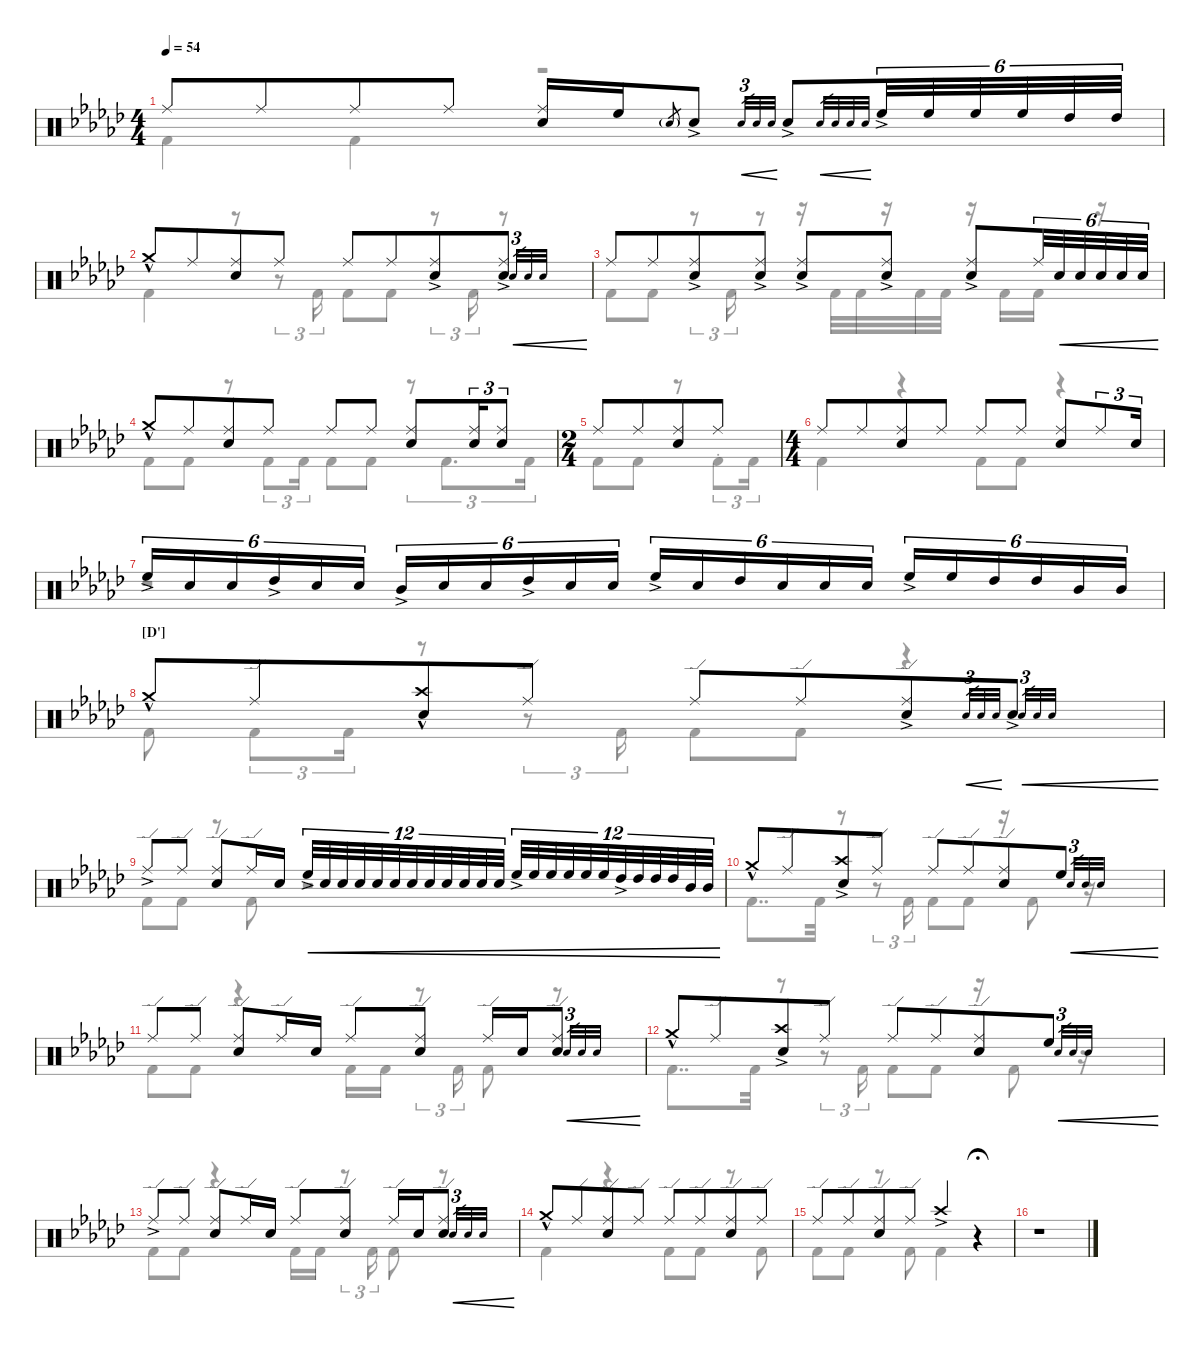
\defaultSystemsLayout 4
\hideDynamics
\bracketExtendMode nobrackets
\singleTrackTrackNamePolicy hidden
\multiTrackTrackNamePolicy hidden
\otherSystemsTrackNameOrientation horizontal
\track ("Drums" "Dr.") {instrument percussion}
\staff {score}
\articulation defaults
\voice
\ts (4 4)
\tempo 54
\clef neutral
\scale
0.464508
\ks gb "Ride (middle)"{acc #}.8{dy f beam Up} "Ride (middle)"{acc #}.8{beam Up beam merge} "Ride (middle)"{acc #}.8{beam Up} "Ride (middle)"{acc #}.8{beam Up}
("Ride (middle)"{acc #} "Snare (hit) 2"{acc #}).16{beam Up} "High Floor Tom (hit)"{acc #}.16{beam Up} "Snare (hit) 2"{g acc #}.8{gr dy mp beam Up} "Snare (hit) 2"{ac acc #}.8{dy f beam Up} "Snare (hit) 2"{acc #}.32{tu (3 2) gr cre dy mf beam Up} "Snare (hit) 2"{acc #}.32{tu (3 2) gr cre beam Up} "Snare (hit) 2"{acc #}.32{tu (3 2) gr cre beam Up} "Snare (hit) 2"{ac acc #}.8{dy f beam Up beam merge} "Snare (hit) 2"{acc #}.32{gr cre dy mf beam Up beam merge} "Snare (hit) 2"{acc #}.32{gr cre beam Up beam merge} "Snare (hit) 2"{acc #}.32{gr cre beam Up beam merge} "Snare (hit) 2"{acc #}.32{gr cre beam Up beam merge} "High Floor Tom (hit)"{ac acc #}.32{tu (6 4) dy f beam Up} "High Floor Tom (hit)"{acc #}.32{tu (6 4) beam Up} "High Floor Tom (hit)"{acc #}.32{tu (6 4) beam Up} "High Floor Tom (hit)"{acc #}.32{tu (6 4) beam Up} "High Tom (hit)"{acc #}.32{tu (6 4) beam Up} "High Tom (hit)"{acc #}.32{tu (6 4) beam Up} |
"Crash medium (hit)"{hac acc #}.8{beam Up} "Ride (middle)"{acc #}.8{beam Up beam merge} ("Ride (middle)"{acc #} "Snare (hit) 2"{acc #}).8{beam Up} "Ride (middle)"{acc #}.8{beam Up} "Ride (middle)"{acc #}.8{beam Up} "Ride (middle)"{acc #}.8{beam Up beam merge} ("Ride (middle)"{acc #} "Snare (hit) 2"{ac acc #}).8{beam Up} ("Ride (middle)"{acc #} "Snare (hit) 2"{ac acc #}).8{beam Up beam merge} "Snare (hit) 2"{acc #}.32{tu (3 2) gr cre dy mf beam Up} "Snare (hit) 2"{acc #}.32{tu (3 2) gr cre beam Up} "Snare (hit) 2"{acc #}.32{tu (3 2) gr cre beam Up} |
"Ride (middle)"{acc #}.8{dy f beam Up} "Ride (middle)"{acc #}.8{beam Up beam merge} ("Ride (middle)"{acc #} "Snare (hit) 2"{ac acc #}).8{beam Up} ("Ride (middle)"{acc #} "Snare (hit) 2"{ac acc #}).8{beam Up} ("Ride (middle)"{acc #} "Snare (hit) 2"{ac acc #}).8{beam Up} ("Ride (middle)"{acc #} "Snare (hit) 2"{ac acc #}).8{beam Up} ("Ride (middle)"{acc #} "Snare (hit) 2"{ac acc #}).8{beam Up beam merge} "Ride (middle)"{acc #}.32{tu (6 4) beam Up beam merge} "Snare (hit) 2"{acc #}.32{tu (6 4) cre beam Up beam merge} "Snare (hit) 2"{acc #}.32{tu (6 4) cre beam Up beam merge} "Snare (hit) 2"{acc #}.32{tu (6 4) cre beam Up beam merge} "Snare (hit) 2"{acc #}.32{tu (6 4) cre beam Up beam merge} "Snare (hit) 2"{acc #}.32{tu (6 4) cre beam Up beam merge} |
"Crash medium (hit)"{hac acc #}.8{beam Up} "Ride (middle)"{acc #}.8{beam Up beam merge} ("Ride (middle)"{acc #} "Snare (hit) 2"{acc #}).8{beam Up} "Ride (middle)"{acc #}.8{beam Up} "Ride (middle)"{acc #}.8{beam Up} "Ride (middle)"{acc #}.8{beam Up} ("Ride (middle)"{acc #} "Snare (hit) 2"{acc #}).8{beam Up beam merge} ("Ride (middle)"{acc #} "Snare (hit) 2"{acc #}).16{tu (3 2) beam Up beam merge} ("Ride (middle)"{acc #} "Snare (hit) 2"{acc #}).8{tu (3 2) beam Up beam merge} |
\ts (2 4)
"Ride (middle)"{acc #}.8{beam Up} "Ride (middle)"{acc #}.8{beam Up beam merge} ("Ride (middle)"{acc #} "Snare (hit) 2"{acc #}).8{beam Up} "Ride (middle)"{acc #}.8{beam Up} |
\ts (4 4)
"Ride (middle)"{acc #}.8{beam Up} "Ride (middle)"{acc #}.8{beam Up beam merge} ("Ride (middle)"{acc #} "Snare (hit) 2"{acc #}).8{beam Up} "Ride (middle)"{acc #}.8{beam Up} "Ride (middle)"{acc #}.8{beam Up} "Ride (middle)"{acc #}.8{beam Up} ("Ride (middle)"{acc #} "Snare (hit) 2"{acc #}).8{beam Up beam merge} "Ride (middle)"{acc #}.8{tu (3 2) beam Up} "Snare (hit) 2"{acc #}.16{tu (3 2) beam Up} |
"High Floor Tom (hit)"{ac acc #}.16{tu (6 4) beam Up} "Snare (hit) 2"{acc #}.16{tu (6 4) beam Up} "Snare (hit) 2"{acc #}.16{tu (6 4) beam Up} "High Tom (hit)"{ac acc #}.16{tu (6 4) beam Up} "Snare (hit) 2"{acc #}.16{tu (6 4) beam Up} "Snare (hit) 2"{acc #}.16{tu (6 4) beam Up} "Mid Tom (hit)"{ac acc #}.16{tu (6 4) beam Up} "Snare (hit) 2"{acc #}.16{tu (6 4) beam Up} "Snare (hit) 2"{acc #}.16{tu (6 4) beam Up} "High Tom (hit)"{ac acc #}.16{tu (6 4) beam Up} "Snare (hit) 2"{acc #}.16{tu (6 4) beam Up} "Snare (hit) 2"{acc #}.16{tu (6 4) beam Up} "High Floor Tom (hit)"{ac acc #}.16{tu (6 4) beam Up} "Snare (hit) 2"{acc #}.16{tu (6 4) beam Up} "High Tom (hit)"{acc #}.16{tu (6 4) beam Up} "Snare (hit) 2"{acc #}.16{tu (6 4) beam Up} "Snare (hit) 2"{acc #}.16{tu (6 4) beam Up} "Snare (hit) 2"{acc #}.16{tu (6 4) beam Up} "High Floor Tom (hit)"{ac acc #}.16{tu (6 4) beam Up} "High Floor Tom (hit)"{acc #}.16{tu (6 4) beam Up} "High Tom (hit)"{acc #}.16{tu (6 4) beam Up} "High Tom (hit)"{acc #}.16{tu (6 4) beam Up} "Mid Tom (hit)"{acc #}.16{tu (6 4) beam Up} "Mid Tom (hit)"{acc #}.16{tu (6 4) beam Up} |
\section ("D'" "")
"Crash medium (hit)"{hac acc #}.8{beam Up} "Ride (edge)"{acc #}.8{beam Up beam merge} ("Crash high (hit)"{hac acc #} "Snare (hit) 2"{acc #}).8{beam Up beam merge} "Ride (edge)"{acc #}.8{beam Up beam split} "Ride (edge)"{acc #}.8{beam Up beam merge} "Ride (edge)"{acc #}.8{beam Up beam merge} ("Ride (edge)"{acc #} "Snare (hit) 2"{ac acc #}).8{beam Up beam merge} "Snare (hit) 2"{acc #}.32{tu (3 2) gr cre dy mf beam Up beam merge} "Snare (hit) 2"{acc #}.32{tu (3 2) gr cre beam Up beam merge} "Snare (hit) 2"{acc #}.32{tu (3 2) gr cre beam Up beam merge} "Snare (hit) 2"{ac acc #}.8{dy f beam Up beam merge} "Snare (hit) 2"{acc #}.32{tu (3 2) gr cre dy mf beam Up beam merge} "Snare (hit) 2"{acc #}.32{tu (3 2) gr cre beam Up beam merge} "Snare (hit) 2"{acc #}.32{tu (3 2) gr cre beam Up beam split} |
"Ride (edge)"{ac acc #}.8{dy f beam Up} "Ride (edge)"{acc #}.8{beam Up} ("Ride (edge)"{acc #} "Snare (hit) 2"{acc #}).8{beam Up} "Ride (edge)"{acc #}.16{beam Up} "Snare (hit) 2"{acc #}.16{beam Up} "High Floor Tom (hit)"{ac acc #}.32{tu (12 8) cre beam Up} "Snare (hit) 2"{acc #}.32{tu (12 8) cre beam Up} "Snare (hit) 2"{acc #}.32{tu (12 8) cre beam Up} "Snare (hit) 2"{acc #}.32{tu (12 8) cre beam Up} "Snare (hit) 2"{acc #}.32{tu (12 8) cre beam Up} "Snare (hit) 2"{acc #}.32{tu (12 8) cre beam Up} "Snare (hit) 2"{acc #}.32{tu (12 8) cre beam Up} "Snare (hit) 2"{acc #}.32{tu (12 8) cre beam Up} "Snare (hit) 2"{acc #}.32{tu (12 8) cre beam Up} "Snare (hit) 2"{acc #}.32{tu (12 8) cre beam Up} "Snare (hit) 2"{acc #}.32{tu (12 8) cre beam Up} "Snare (hit) 2"{acc #}.32{tu (12 8) cre beam Up} "High Floor Tom (hit)"{ac acc #}.32{tu (12 8) cre beam Up} "High Floor Tom (hit)"{acc #}.32{tu (12 8) cre beam Up} "High Floor Tom (hit)"{acc #}.32{tu (12 8) cre beam Up} "High Floor Tom (hit)"{acc #}.32{tu (12 8) cre beam Up} "High Floor Tom (hit)"{acc #}.32{tu (12 8) cre beam Up} "High Floor Tom (hit)"{acc #}.32{tu (12 8) cre beam Up} "High Tom (hit)"{ac acc #}.32{tu (12 8) cre beam Up} "High Tom (hit)"{acc #}.32{tu (12 8) cre beam Up} "High Tom (hit)"{acc #}.32{tu (12 8) cre beam Up} "High Tom (hit)"{acc #}.32{tu (12 8) cre beam Up} "Mid Tom (hit)"{acc #}.32{tu (12 8) cre beam Up} "Mid Tom (hit)"{acc #}.32{tu (12 8) cre beam Up} |
"Crash medium (hit)"{hac acc #}.8{beam Up} "Ride (edge)"{acc #}.8{beam Up beam merge} ("Crash high (hit)"{ac acc #} "Snare (hit) 2"{acc #}).8{beam Up beam merge} "Ride (edge)"{acc #}.8{beam Up beam split} "Ride (edge)"{acc #}.8{beam Up beam merge} "Ride (edge)"{acc #}.8{beam Up beam merge} ("Ride (edge)"{acc #} "Snare (hit) 2"{acc #}).8{beam Up beam merge} "High Floor Tom (hit)"{acc #}.8{beam Up beam merge} "Snare (hit) 2"{acc #}.32{tu (3 2) gr cre dy mf beam Up beam merge} "Snare (hit) 2"{acc #}.32{tu (3 2) gr cre beam Up beam merge} "Snare (hit) 2"{acc #}.32{tu (3 2) gr cre beam Up beam split} |
"Ride (edge)"{acc #}.8{dy f beam Up} "Ride (edge)"{acc #}.8{beam Up} ("Ride (edge)"{acc #} "Snare (hit) 2"{acc #}).8{beam Up} "Ride (edge)"{acc #}.16{beam Up} "Snare (hit) 2"{acc #}.16{beam Up} "Ride (edge)"{acc #}.8{beam Up} ("Ride (edge)"{acc #} "Snare (hit) 2"{acc #}).8{beam Up} "Ride (edge)"{acc #}.16{beam Up} "Snare (hit) 2"{acc #}.16{beam Up} ("Ride (edge)"{acc #} "Snare (hit) 2"{acc #}).8{beam Up beam splitsecondary} "Snare (hit) 2"{acc #}.32{tu (3 2) gr cre dy mf beam Up} "Snare (hit) 2"{acc #}.32{tu (3 2) gr cre beam Up} "Snare (hit) 2"{acc #}.32{tu (3 2) gr cre beam Up} |
"Crash medium (hit)"{hac acc #}.8{dy f beam Up} "Ride (edge)"{acc #}.8{beam Up beam merge} ("Crash high (hit)"{ac acc #} "Snare (hit) 2"{acc #}).8{beam Up beam merge} "Ride (edge)"{acc #}.8{beam Up beam split} "Ride (edge)"{acc #}.8{beam Up beam merge} "Ride (edge)"{acc #}.8{beam Up beam merge} ("Ride (edge)"{acc #} "Snare (hit) 2"{acc #}).8{beam Up beam merge} "High Floor Tom (hit)"{acc #}.8{beam Up beam merge} "Snare (hit) 2"{acc #}.32{tu (3 2) gr cre dy mf beam Up beam merge} "Snare (hit) 2"{acc #}.32{tu (3 2) gr cre beam Up beam merge} "Snare (hit) 2"{acc #}.32{tu (3 2) gr cre beam Up beam split} |
"Ride (edge)"{ac acc #}.8{dy f beam Up} "Ride (edge)"{acc #}.8{beam Up} ("Ride (edge)"{acc #} "Snare (hit) 2"{acc #}).8{beam Up} "Ride (edge)"{acc #}.16{beam Up} "Snare (hit) 2"{acc #}.16{beam Up} "Ride (edge)"{acc #}.8{beam Up} ("Ride (edge)"{acc #} "Snare (hit) 2"{acc #}).8{beam Up} "Ride (edge)"{acc #}.16{beam Up} "Snare (hit) 2"{acc #}.16{beam Up} ("Ride (edge)"{acc #} "Snare (hit) 2"{acc #}).8{beam Up beam merge} "Snare (hit) 2"{acc #}.32{tu (3 2) gr cre dy mf beam Up} "Snare (hit) 2"{acc #}.32{tu (3 2) gr cre beam Up} "Snare (hit) 2"{acc #}.32{tu (3 2) gr cre beam Up} |
"Crash medium (hit)"{hac acc #}.8{dy f beam Up} "Ride (edge)"{acc #}.8{beam Up beam merge} ("Ride (edge)"{acc #} "Snare (hit) 2"{acc #}).8{beam Up} "Ride (edge)"{acc #}.8{beam Up} "Ride (edge)"{acc #}.8{beam Up} "Ride (edge)"{acc #}.8{beam Up beam merge} ("Ride (edge)"{acc #} "Snare (hit) 2"{acc #}).8{beam Up} "Ride (edge)"{acc #}.8{beam Up} |
"Ride (edge)"{acc #}.8{beam Up} "Ride (edge)"{acc #}.8{beam Up beam merge} ("Ride (edge)"{acc #} "Snare (hit) 2"{acc #}).8{beam Up} "Ride (edge)"{acc #}.8{beam Up} "Crash high (hit)"{ac acc #}.4{beam Up} r.4{fermata (medium 0.5) beam Up} |
r.1{beam Down}
\voice
\clef neutral
\ottava regular
\simile none
\scale
0.464508
\ks gb "Kick (hit) 2"{acc #}.4{dy f beam Down} "Kick (hit) 2"{acc #}.4{beam Down}
r.2{beam Down} |
"Kick (hit) 2"{acc #}.4{beam Down} r.8{beam Down} r.8{tu (3 2) beam Down} "Kick (hit) 2"{acc #}.16{tu (3 2) beam Down} "Kick (hit) 2"{acc #}.8{beam Down} "Kick (hit) 2"{acc #}.8{beam Down} r.8{tu (3 2) beam Down} "Kick (hit) 2"{acc #}.16{tu (3 2) beam Down} r.8{beam Down} |
"Kick (hit) 2"{acc #}.8{beam Down} "Kick (hit) 2"{acc #}.8{beam Down} r.8{tu (3 2) beam Down} "Kick (hit) 2"{acc #}.16{tu (3 2) beam Down} r.8{beam Down} r.16{beam Down} "Kick (hit) 2"{acc #}.32{beam Down} "Kick (hit) 2"{acc #}.32{beam Down} r.16{beam Down} "Kick (hit) 2"{acc #}.32{beam Down} "Kick (hit) 2"{acc #}.32{beam Down} r.16{beam Down} "Kick (hit) 2"{acc #}.16{beam Down} "Kick (hit) 2"{acc #}.16{beam Down} r.16{beam Down} |
"Kick (hit) 2"{acc #}.8{beam Down} "Kick (hit) 2"{acc #}.8{beam Down} r.8{beam Down} "Kick (hit) 2"{acc #}.8{tu (3 2) beam Down} "Kick (hit) 2"{acc #}.16{tu (3 2) beam Down} "Kick (hit) 2"{acc #}.8{beam Down} "Kick (hit) 2"{acc #}.8{beam Down} r.8{tu (3 2) beam Down} "Kick (hit) 2"{acc #}.8{d tu (3 2) beam Down} "Kick (hit) 2"{acc #}.16{tu (3 2) beam Down} |
"Kick (hit) 2"{acc #}.8{beam Down} "Kick (hit) 2"{acc #}.8{beam Down} r.8{beam Down} "Kick (hit) 2"{st acc #}.8{tu (3 2) beam Down} "Kick (hit) 2"{acc #}.16{tu (3 2) beam Down} |
"Kick (hit) 2"{acc #}.4{beam Down} r.4{beam Down} "Kick (hit) 2"{acc #}.8{beam Down} "Kick (hit) 2"{acc #}.8{beam Down} r.4{beam Down} |
r.1{beam Down} |
"Kick (hit) 2"{acc #}.8{beam Down} "Kick (hit) 2"{acc #}.8{tu (3 2) beam Down} "Kick (hit) 2"{acc #}.16{tu (3 2) beam Down} r.8{beam Down} r.8{tu (3 2) beam Down} "Kick (hit) 2"{acc #}.16{tu (3 2) beam Down} "Kick (hit) 2"{acc #}.8{beam Down} "Kick (hit) 2"{acc #}.8{beam Down} r.4{beam Down} |
"Kick (hit) 2"{acc #}.8{beam Down} "Kick (hit) 2"{acc #}.8{beam Down} r.8{beam Down} "Kick (hit) 2"{acc #}.8{beam Down} r.2{beam Down} |
"Kick (hit) 2"{acc #}.8{dd beam Down} "Kick (hit) 2"{acc #}.32{beam Down} r.8{beam Down} r.8{tu (3 2) beam Down} "Kick (hit) 2"{acc #}.16{tu (3 2) beam Down} "Kick (hit) 2"{acc #}.8{beam Down} "Kick (hit) 2"{acc #}.8{beam Down} r.16{beam Down} "Kick (hit) 2"{acc #}.8{beam Down} r.16{beam Down} |
"Kick (hit) 2"{acc #}.8{beam Down} "Kick (hit) 2"{acc #}.8{beam Down} r.4{beam Down} "Kick (hit) 2"{acc #}.16{beam Down} "Kick (hit) 2"{acc #}.16{beam Down} r.8{tu (3 2) beam Down} "Kick (hit) 2"{acc #}.16{tu (3 2) beam Down} "Kick (hit) 2"{acc #}.8{beam Down} r.8{beam Down} |
"Kick (hit) 2"{acc #}.8{dd beam Down} "Kick (hit) 2"{acc #}.32{beam Down} r.8{beam Down} r.8{tu (3 2) beam Down} "Kick (hit) 2"{acc #}.16{tu (3 2) beam Down} "Kick (hit) 2"{acc #}.8{beam Down} "Kick (hit) 2"{acc #}.8{beam Down} r.16{beam Down} "Kick (hit) 2"{acc #}.8{beam Down} r.16{beam Down} |
"Kick (hit) 2"{acc #}.8{beam Down} "Kick (hit) 2"{acc #}.8{beam Down} r.4{beam Down} "Kick (hit) 2"{acc #}.16{beam Down} "Kick (hit) 2"{acc #}.16{beam Down} r.8{tu (3 2) beam Down} "Kick (hit) 2"{acc #}.16{tu (3 2) beam Down} "Kick (hit) 2"{acc #}.8{beam Down} r.8{beam Down} |
"Kick (hit) 2"{acc #}.4{beam Down} r.4{beam Down} "Kick (hit) 2"{acc #}.8{beam Down} "Kick (hit) 2"{acc #}.8{beam Down} r.8{beam Down} "Kick (hit) 2"{acc #}.8{beam Down} |
"Kick (hit) 2"{acc #}.8{beam Down} "Kick (hit) 2"{acc #}.8{beam Down} r.8{beam Down} "Kick (hit) 2"{acc #}.8{beam Down} "Kick (hit) 2"{acc #}.4{beam Down} r.4{fermata (medium 0.5) beam Down} |
